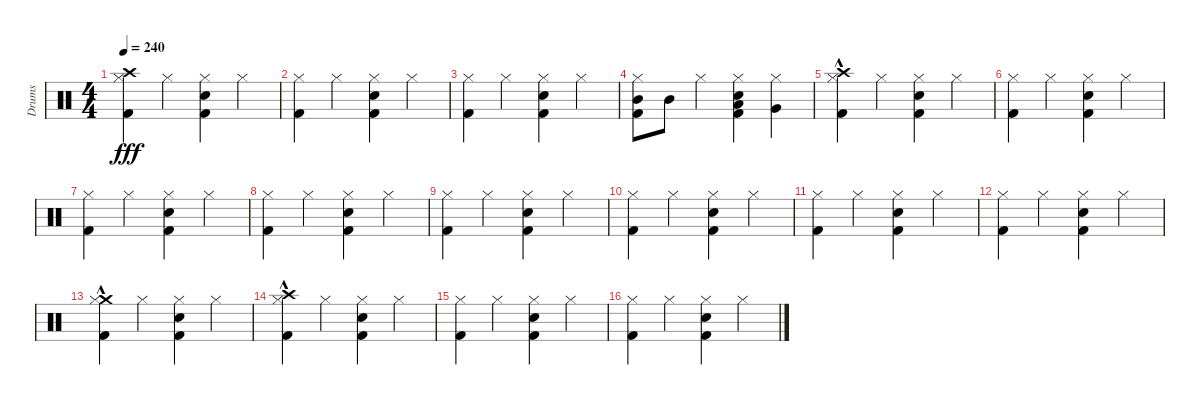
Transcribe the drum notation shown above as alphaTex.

\track ("Drums" "Drums") {instrument percussion}
\staff {score}
\articulation defaults
\ts (4 4)
\tempo 240
\clef neutral
\ks c
("Crash high (hit)" "Hi-Hat (closed)" "Kick (hit) 2").4{dy fff} "Hi-Hat (closed)".4 ("Hi-Hat (closed)" "Kick (hit) 2" "Snare (hit) 2").4 "Hi-Hat (closed)".4 |
("Hi-Hat (closed)" "Kick (hit) 2").4 "Hi-Hat (closed)".4 ("Hi-Hat (closed)" "Kick (hit) 2" "Snare (hit) 2").4 "Hi-Hat (closed)".4 |
("Hi-Hat (closed)" "Kick (hit) 2").4 "Hi-Hat (closed)".4 ("Hi-Hat (closed)" "Snare (hit) 2" "Kick (hit) 2").4 "Hi-Hat (closed)".4 |
("Mid Tom (hit)" "Hi-Hat (closed)" "Kick (hit) 2").8 "Mid Tom (hit)".8 "Hi-Hat (closed)".4 ("Low Tom (hit)" "Hi-Hat (closed)" "Kick (hit) 2" "Snare (hit) 2").4 ("Very Low Tom (hit)" "Hi-Hat (closed)").4 |
("Crash high (hit)"{hac} "Hi-Hat (closed)" "Kick (hit) 2").4 "Hi-Hat (closed)".4 ("Hi-Hat (closed)" "Kick (hit) 2" "Snare (hit) 2").4 "Hi-Hat (closed)".4 |
("Hi-Hat (closed)" "Kick (hit) 2").4 "Hi-Hat (closed)".4 ("Hi-Hat (closed)" "Snare (hit) 2" "Kick (hit) 2").4 "Hi-Hat (closed)".4 |
("Hi-Hat (closed)" "Kick (hit) 2").4 "Hi-Hat (closed)".4 ("Hi-Hat (closed)" "Kick (hit) 2" "Snare (hit) 2").4 "Hi-Hat (closed)".4 |
("Hi-Hat (closed)" "Kick (hit) 2").4 "Hi-Hat (closed)".4 ("Hi-Hat (closed)" "Kick (hit) 2" "Snare (hit) 2").4 "Hi-Hat (closed)".4 |
("Hi-Hat (closed)" "Kick (hit) 2").4 "Hi-Hat (closed)".4 ("Hi-Hat (closed)" "Kick (hit) 2" "Snare (hit) 2").4 "Hi-Hat (closed)".4 |
("Hi-Hat (closed)" "Kick (hit) 2").4 "Hi-Hat (closed)".4 ("Hi-Hat (closed)" "Kick (hit) 2" "Snare (hit) 2").4 "Hi-Hat (closed)".4 |
("Hi-Hat (closed)" "Kick (hit) 2").4 "Hi-Hat (closed)".4 ("Hi-Hat (closed)" "Snare (hit) 2" "Kick (hit) 2").4 "Hi-Hat (closed)".4 |
("Hi-Hat (closed)" "Kick (hit) 2").4 "Hi-Hat (closed)".4 ("Hi-Hat (closed)" "Kick (hit) 2" "Snare (hit) 2").4 "Hi-Hat (closed)".4 |
("Crash medium (hit)"{hac} "Hi-Hat (closed)" "Kick (hit) 2").4 "Hi-Hat (closed)".4 ("Hi-Hat (closed)" "Kick (hit) 2" "Snare (hit) 2").4 "Hi-Hat (closed)".4 |
("Crash high (hit)"{hac} "Hi-Hat (closed)" "Kick (hit) 2").4 "Hi-Hat (closed)".4 ("Hi-Hat (closed)" "Snare (hit) 2" "Kick (hit) 2").4 "Hi-Hat (closed)".4 |
("Hi-Hat (closed)" "Kick (hit) 2").4 "Hi-Hat (closed)".4 ("Hi-Hat (closed)" "Kick (hit) 2" "Snare (hit) 2").4 "Hi-Hat (closed)".4 |
("Hi-Hat (closed)" "Kick (hit) 2").4 "Hi-Hat (closed)".4 ("Hi-Hat (closed)" "Kick (hit) 2" "Snare (hit) 2").4 "Hi-Hat (closed)".4
